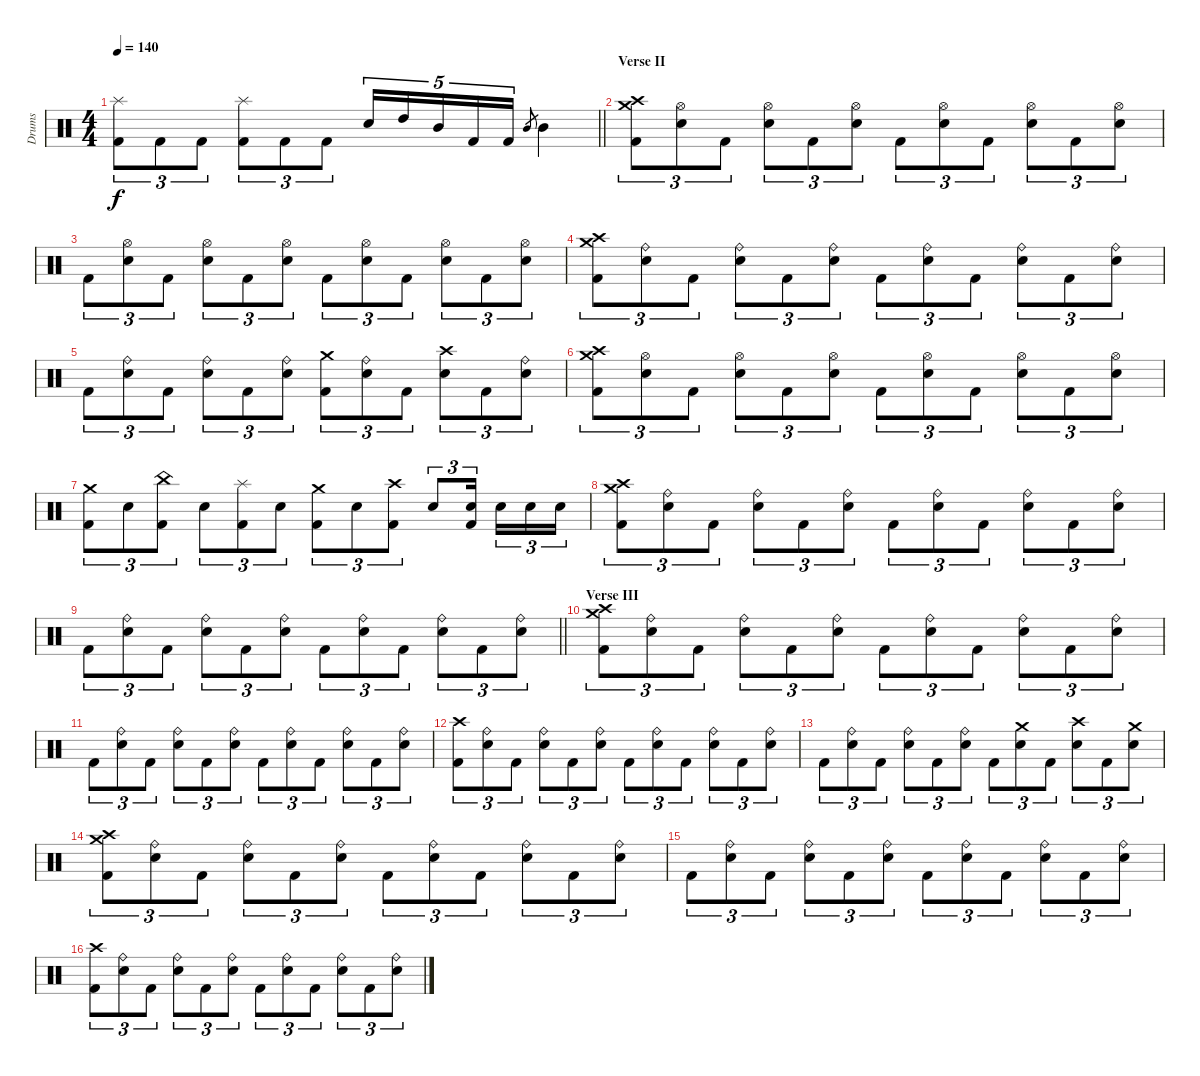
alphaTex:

\track ("Drums" "Drums") {instrument percussion}
\staff {score}
\articulation defaults
\ts (4 4)
\tempo 140
\clef neutral
\barLineRight lightlight
\ks c
("Splash (hit)" "Kick (hit) 2").8{tu (3 2) dy f} "Kick (hit) 2".8{tu (3 2)} "Kick (hit) 2".8{tu (3 2)} ("Splash (hit)" "Kick (hit) 2").8{tu (3 2)} "Kick (hit) 2".8{tu (3 2)} "Kick (hit) 2".8{tu (3 2)} "Electric Snare (hit)".16{tu (5 4)} "High Tom (hit)".16{tu (5 4)} "Mid Tom (hit)".16{tu (5 4)} "Kick (hit) 2".16{tu (5 4)} "Kick (hit) 2".16{tu (5 4)} "Mid Tom (hit)".8{gr} "Mid Tom (hit)".4 |
\section ("" "Verse II")
("Crash medium (hit)" "Crash high (hit)" "Kick (hit) 2").8{tu (3 2)} ("Hi-Hat (open)" "Electric Snare (hit)").8{tu (3 2)} "Kick (hit) 2".8{tu (3 2)} ("Hi-Hat (open)" "Electric Snare (hit)").8{tu (3 2)} "Kick (hit) 2".8{tu (3 2)} ("Hi-Hat (open)" "Electric Snare (hit)").8{tu (3 2)} "Kick (hit) 2".8{tu (3 2)} ("Hi-Hat (open)" "Electric Snare (hit)").8{tu (3 2)} "Kick (hit) 2".8{tu (3 2)} ("Hi-Hat (open)" "Electric Snare (hit)").8{tu (3 2)} "Kick (hit) 2".8{tu (3 2)} ("Hi-Hat (open)" "Electric Snare (hit)").8{tu (3 2)} |
"Kick (hit) 2".8{tu (3 2)} ("Hi-Hat (open)" "Electric Snare (hit)").8{tu (3 2)} "Kick (hit) 2".8{tu (3 2)} ("Hi-Hat (open)" "Electric Snare (hit)").8{tu (3 2)} "Kick (hit) 2".8{tu (3 2)} ("Hi-Hat (open)" "Electric Snare (hit)").8{tu (3 2)} "Kick (hit) 2".8{tu (3 2)} ("Hi-Hat (open)" "Electric Snare (hit)").8{tu (3 2)} "Kick (hit) 2".8{tu (3 2)} ("Hi-Hat (open)" "Electric Snare (hit)").8{tu (3 2)} "Kick (hit) 2".8{tu (3 2)} ("Hi-Hat (open)" "Electric Snare (hit)").8{tu (3 2)} |
("Crash medium (hit)" "Crash high (hit)" "Kick (hit) 2").8{tu (3 2)} ("Ride (bell)" "Electric Snare (hit)").8{tu (3 2)} "Kick (hit) 2".8{tu (3 2)} ("Ride (bell)" "Electric Snare (hit)").8{tu (3 2)} "Kick (hit) 2".8{tu (3 2)} ("Ride (bell)" "Electric Snare (hit)").8{tu (3 2)} "Kick (hit) 2".8{tu (3 2)} ("Ride (bell)" "Electric Snare (hit)").8{tu (3 2)} "Kick (hit) 2".8{tu (3 2)} ("Ride (bell)" "Electric Snare (hit)").8{tu (3 2)} "Kick (hit) 2".8{tu (3 2)} ("Ride (bell)" "Electric Snare (hit)").8{tu (3 2)} |
"Kick (hit) 2".8{tu (3 2)} ("Ride (bell)" "Electric Snare (hit)").8{tu (3 2)} "Kick (hit) 2".8{tu (3 2)} ("Ride (bell)" "Electric Snare (hit)").8{tu (3 2)} "Kick (hit) 2".8{tu (3 2)} ("Ride (bell)" "Electric Snare (hit)").8{tu (3 2)} ("Crash medium (hit)" "Kick (hit) 2").8{tu (3 2)} ("Ride (bell)" "Electric Snare (hit)").8{tu (3 2)} "Kick (hit) 2".8{tu (3 2)} ("Crash high (hit)" "Electric Snare (hit)").8{tu (3 2)} "Kick (hit) 2".8{tu (3 2)} ("Ride (bell)" "Electric Snare (hit)").8{tu (3 2)} |
("Crash medium (hit)" "Crash high (hit)" "Kick (hit) 2").8{tu (3 2)} ("Hi-Hat (open)" "Electric Snare (hit)").8{tu (3 2)} "Kick (hit) 2".8{tu (3 2)} ("Hi-Hat (open)" "Electric Snare (hit)").8{tu (3 2)} "Kick (hit) 2".8{tu (3 2)} ("Hi-Hat (open)" "Electric Snare (hit)").8{tu (3 2)} "Kick (hit) 2".8{tu (3 2)} ("Hi-Hat (open)" "Electric Snare (hit)").8{tu (3 2)} "Kick (hit) 2".8{tu (3 2)} ("Hi-Hat (open)" "Electric Snare (hit)").8{tu (3 2)} "Kick (hit) 2".8{tu (3 2)} ("Hi-Hat (open)" "Electric Snare (hit)").8{tu (3 2)} |
("Crash medium (hit)" "Kick (hit) 2").8{tu (3 2)} "Electric Snare (hit)".8{tu (3 2)} ("China (hit)" "Kick (hit) 2").8{tu (3 2)} "Electric Snare (hit)".8{tu (3 2)} ("Splash (hit)" "Kick (hit) 2").8{tu (3 2)} "Electric Snare (hit)".8{tu (3 2)} ("Crash medium (hit)" "Kick (hit) 2").8{tu (3 2)} "Electric Snare (hit)".8{tu (3 2)} ("Crash high (hit)" "Kick (hit) 2").8{tu (3 2)} "Electric Snare (hit)".8{tu (3 2)} ("Electric Snare (hit)" "Kick (hit) 2").16{tu (3 2) beam splitsecondary} "Electric Snare (hit)".16{tu (3 2)} "Electric Snare (hit)".16{tu (3 2)} "Electric Snare (hit)".16{tu (3 2)} |
("Crash medium (hit)" "Crash high (hit)" "Kick (hit) 2").8{tu (3 2)} ("Ride (bell)" "Electric Snare (hit)").8{tu (3 2)} "Kick (hit) 2".8{tu (3 2)} ("Ride (bell)" "Electric Snare (hit)").8{tu (3 2)} "Kick (hit) 2".8{tu (3 2)} ("Ride (bell)" "Electric Snare (hit)").8{tu (3 2)} "Kick (hit) 2".8{tu (3 2)} ("Ride (bell)" "Electric Snare (hit)").8{tu (3 2)} "Kick (hit) 2".8{tu (3 2)} ("Ride (bell)" "Electric Snare (hit)").8{tu (3 2)} "Kick (hit) 2".8{tu (3 2)} ("Ride (bell)" "Electric Snare (hit)").8{tu (3 2)} |
\barLineRight lightlight "Kick (hit) 2".8{tu (3 2)}
("Ride (bell)" "Electric Snare (hit)").8{tu (3 2)} "Kick (hit) 2".8{tu (3 2)} ("Ride (bell)" "Electric Snare (hit)").8{tu (3 2)} "Kick (hit) 2".8{tu (3 2)} ("Ride (bell)" "Electric Snare (hit)").8{tu (3 2)} "Kick (hit) 2".8{tu (3 2)} ("Ride (bell)" "Electric Snare (hit)").8{tu (3 2)} "Kick (hit) 2".8{tu (3 2)} ("Ride (bell)" "Electric Snare (hit)").8{tu (3 2)} "Kick (hit) 2".8{tu (3 2)} ("Ride (bell)" "Electric Snare (hit)").8{tu (3 2)} |
\section ("" "Verse III")
("Crash medium (hit)" "Crash high (hit)" "Kick (hit) 2").8{tu (3 2)} ("Ride (bell)" "Electric Snare (hit)").8{tu (3 2)} "Kick (hit) 2".8{tu (3 2)} ("Ride (bell)" "Electric Snare (hit)").8{tu (3 2)} "Kick (hit) 2".8{tu (3 2)} ("Ride (bell)" "Electric Snare (hit)").8{tu (3 2)} "Kick (hit) 2".8{tu (3 2)} ("Ride (bell)" "Electric Snare (hit)").8{tu (3 2)} "Kick (hit) 2".8{tu (3 2)} ("Ride (bell)" "Electric Snare (hit)").8{tu (3 2)} "Kick (hit) 2".8{tu (3 2)} ("Ride (bell)" "Electric Snare (hit)").8{tu (3 2)} |
"Kick (hit) 2".8{tu (3 2)} ("Ride (bell)" "Electric Snare (hit)").8{tu (3 2)} "Kick (hit) 2".8{tu (3 2)} ("Ride (bell)" "Electric Snare (hit)").8{tu (3 2)} "Kick (hit) 2".8{tu (3 2)} ("Ride (bell)" "Electric Snare (hit)").8{tu (3 2)} "Kick (hit) 2".8{tu (3 2)} ("Ride (bell)" "Electric Snare (hit)").8{tu (3 2)} "Kick (hit) 2".8{tu (3 2)} ("Ride (bell)" "Electric Snare (hit)").8{tu (3 2)} "Kick (hit) 2".8{tu (3 2)} ("Ride (bell)" "Electric Snare (hit)").8{tu (3 2)} |
("Crash high (hit)" "Kick (hit) 2").8{tu (3 2)} ("Ride (bell)" "Electric Snare (hit)").8{tu (3 2)} "Kick (hit) 2".8{tu (3 2)} ("Ride (bell)" "Electric Snare (hit)").8{tu (3 2)} "Kick (hit) 2".8{tu (3 2)} ("Ride (bell)" "Electric Snare (hit)").8{tu (3 2)} "Kick (hit) 2".8{tu (3 2)} ("Ride (bell)" "Electric Snare (hit)").8{tu (3 2)} "Kick (hit) 2".8{tu (3 2)} ("Ride (bell)" "Electric Snare (hit)").8{tu (3 2)} "Kick (hit) 2".8{tu (3 2)} ("Ride (bell)" "Electric Snare (hit)").8{tu (3 2)} |
"Kick (hit) 2".8{tu (3 2)} ("Ride (bell)" "Electric Snare (hit)").8{tu (3 2)} "Kick (hit) 2".8{tu (3 2)} ("Ride (bell)" "Electric Snare (hit)").8{tu (3 2)} "Kick (hit) 2".8{tu (3 2)} ("Ride (bell)" "Electric Snare (hit)").8{tu (3 2)} "Kick (hit) 2".8{tu (3 2)} ("Crash medium (hit)" "Electric Snare (hit)").8{tu (3 2)} "Kick (hit) 2".8{tu (3 2)} ("Crash high (hit)" "Electric Snare (hit)").8{tu (3 2)} "Kick (hit) 2".8{tu (3 2)} ("Crash medium (hit)" "Electric Snare (hit)").8{tu (3 2)} |
("Crash medium (hit)" "Crash high (hit)" "Kick (hit) 2").8{tu (3 2)} ("Ride (bell)" "Electric Snare (hit)").8{tu (3 2)} "Kick (hit) 2".8{tu (3 2)} ("Ride (bell)" "Electric Snare (hit)").8{tu (3 2)} "Kick (hit) 2".8{tu (3 2)} ("Ride (bell)" "Electric Snare (hit)").8{tu (3 2)} "Kick (hit) 2".8{tu (3 2)} ("Ride (bell)" "Electric Snare (hit)").8{tu (3 2)} "Kick (hit) 2".8{tu (3 2)} ("Ride (bell)" "Electric Snare (hit)").8{tu (3 2)} "Kick (hit) 2".8{tu (3 2)} ("Ride (bell)" "Electric Snare (hit)").8{tu (3 2)} |
"Kick (hit) 2".8{tu (3 2)} ("Ride (bell)" "Electric Snare (hit)").8{tu (3 2)} "Kick (hit) 2".8{tu (3 2)} ("Ride (bell)" "Electric Snare (hit)").8{tu (3 2)} "Kick (hit) 2".8{tu (3 2)} ("Ride (bell)" "Electric Snare (hit)").8{tu (3 2)} "Kick (hit) 2".8{tu (3 2)} ("Ride (bell)" "Electric Snare (hit)").8{tu (3 2)} "Kick (hit) 2".8{tu (3 2)} ("Ride (bell)" "Electric Snare (hit)").8{tu (3 2)} "Kick (hit) 2".8{tu (3 2)} ("Ride (bell)" "Electric Snare (hit)").8{tu (3 2)} |
("Crash high (hit)" "Kick (hit) 2").8{tu (3 2)} ("Ride (bell)" "Electric Snare (hit)").8{tu (3 2)} "Kick (hit) 2".8{tu (3 2)} ("Ride (bell)" "Electric Snare (hit)").8{tu (3 2)} "Kick (hit) 2".8{tu (3 2)} ("Ride (bell)" "Electric Snare (hit)").8{tu (3 2)} "Kick (hit) 2".8{tu (3 2)} ("Ride (bell)" "Electric Snare (hit)").8{tu (3 2)} "Kick (hit) 2".8{tu (3 2)} ("Ride (bell)" "Electric Snare (hit)").8{tu (3 2)} "Kick (hit) 2".8{tu (3 2)} ("Ride (bell)" "Electric Snare (hit)").8{tu (3 2)}
